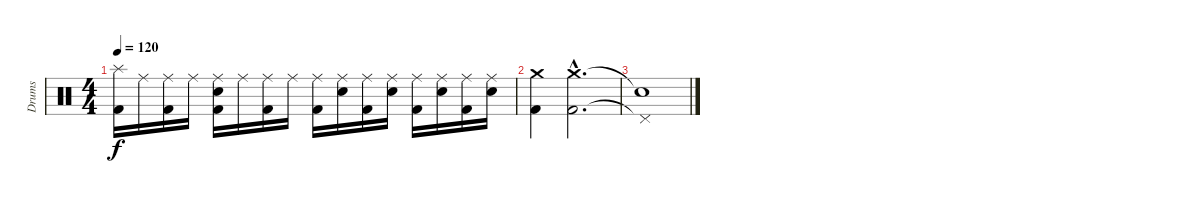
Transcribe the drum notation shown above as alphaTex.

\track ("Drums" "Drums") {instrument percussion}
\staff {score}
\articulation defaults
\ts (4 4)
\tempo 120
\clef neutral
\ks c
("Splash (hit)" "Kick (hit) 2").16{dy f} "Ride (middle)".16 ("Ride (middle)" "Kick (hit) 2").16 "Ride (middle)".16 ("Ride (middle)" "Kick (hit) 2" "Snare (hit) 2").16 "Ride (middle)".16 ("Ride (middle)" "Kick (hit) 2").16 "Ride (middle)".16 ("Ride (middle)" "Kick (hit) 2").16 ("Ride (middle)" "Snare (hit) 2").16 ("Ride (middle)" "Kick (hit) 2").16 ("Ride (middle)" "Snare (hit) 2").16 ("Ride (middle)" "Kick (hit) 2").16 ("Ride (middle)" "Snare (hit) 2").16 ("Ride (middle)" "Kick (hit) 2").16 ("Ride (middle)" "Snare (hit) 2").16 |
("Crash medium (hit)" "Kick (hit) 2").4 ("Crash medium (hit)"{hac} "Kick (hit) 2").2{d} |
("Snare (hit)"{t} "Pedal Hi-Hat (hit)"{t}).1
